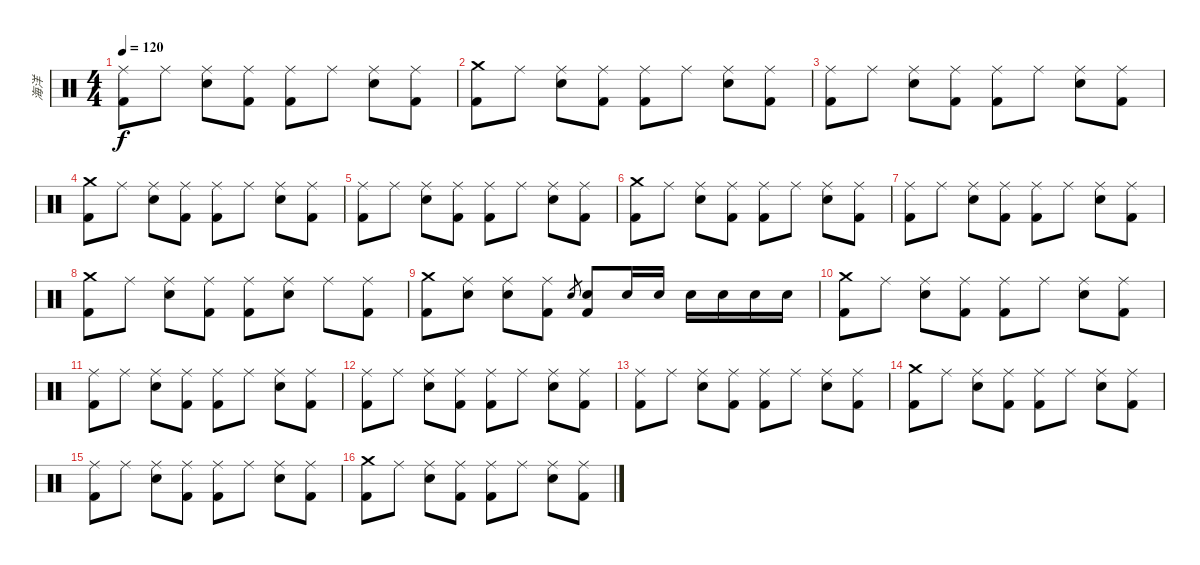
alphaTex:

\track ("海洋" "海洋") {instrument percussion}
\staff {score}
\articulation defaults
\ts (4 4)
\tempo 120
\clef neutral
\ks c
("Ride (middle)" "Kick (hit) 2").8{dy f} "Ride (middle)".8 ("Ride (middle)" "Electric Snare (hit)").8 ("Ride (middle)" "Kick (hit) 2").8 ("Ride (middle)" "Kick (hit) 2").8 "Ride (middle)".8 ("Ride (middle)" "Electric Snare (hit)").8 ("Ride (middle)" "Kick (hit) 2").8 |
("Crash medium (hit)" "Kick (hit) 2").8 "Ride (middle)".8 ("Ride (middle)" "Electric Snare (hit)").8 ("Ride (middle)" "Kick (hit) 2").8 ("Ride (middle)" "Kick (hit) 2").8 "Ride (middle)".8 ("Ride (middle)" "Electric Snare (hit)").8 ("Ride (middle)" "Kick (hit) 2").8 |
("Ride (middle)" "Kick (hit) 2").8 "Ride (middle)".8 ("Ride (middle)" "Electric Snare (hit)").8 ("Ride (middle)" "Kick (hit) 2").8 ("Ride (middle)" "Kick (hit) 2").8 "Ride (middle)".8 ("Ride (middle)" "Electric Snare (hit)").8 ("Ride (middle)" "Kick (hit) 2").8 |
("Crash medium (hit)" "Kick (hit) 2").8 "Ride (middle)".8 ("Ride (middle)" "Electric Snare (hit)").8 ("Ride (middle)" "Kick (hit) 2").8 ("Ride (middle)" "Kick (hit) 2").8 "Ride (middle)".8 ("Ride (middle)" "Electric Snare (hit)").8 ("Ride (middle)" "Kick (hit) 2").8 |
("Ride (middle)" "Kick (hit) 2").8 "Ride (middle)".8 ("Ride (middle)" "Electric Snare (hit)").8 ("Ride (middle)" "Kick (hit) 2").8 ("Ride (middle)" "Kick (hit) 2").8 "Ride (middle)".8 ("Ride (middle)" "Electric Snare (hit)").8 ("Ride (middle)" "Kick (hit) 2").8 |
("Crash medium (hit)" "Kick (hit) 2").8 "Ride (middle)".8 ("Ride (middle)" "Electric Snare (hit)").8 ("Ride (middle)" "Kick (hit) 2").8 ("Ride (middle)" "Kick (hit) 2").8 "Ride (middle)".8 ("Ride (middle)" "Electric Snare (hit)").8 ("Ride (middle)" "Kick (hit) 2").8 |
("Ride (middle)" "Kick (hit) 2").8 "Ride (middle)".8 ("Ride (middle)" "Electric Snare (hit)").8 ("Ride (middle)" "Kick (hit) 2").8 ("Ride (middle)" "Kick (hit) 2").8 "Ride (middle)".8 ("Ride (middle)" "Electric Snare (hit)").8 ("Ride (middle)" "Kick (hit) 2").8 |
("Crash medium (hit)" "Kick (hit) 2").8 "Ride (middle)".8 ("Ride (middle)" "Electric Snare (hit)").8 ("Ride (middle)" "Kick (hit) 2").8 ("Ride (middle)" "Kick (hit) 2").8 ("Ride (middle)" "Electric Snare (hit)").8 "Ride (middle)".8 ("Ride (middle)" "Kick (hit) 2").8 |
("Crash medium (hit)" "Kick (hit) 2").8 ("Ride (middle)" "Electric Snare (hit)").8 ("Ride (middle)" "Electric Snare (hit)").8 ("Ride (middle)" "Kick (hit) 2").8 "Electric Snare (hit)".8{gr} ("Electric Snare (hit)" "Kick (hit) 2").8 "Electric Snare (hit)".16 "Electric Snare (hit)".16 "Electric Snare (hit)".16 "Electric Snare (hit)".16 "Electric Snare (hit)".16 "Electric Snare (hit)".16 |
("Crash medium (hit)" "Kick (hit) 2").8 "Ride (middle)".8 ("Ride (middle)" "Electric Snare (hit)").8 ("Ride (middle)" "Kick (hit) 2").8 ("Ride (middle)" "Kick (hit) 2").8 "Ride (middle)".8 ("Ride (middle)" "Electric Snare (hit)").8 ("Ride (middle)" "Kick (hit) 2").8 |
("Ride (middle)" "Kick (hit) 2").8 "Ride (middle)".8 ("Ride (middle)" "Electric Snare (hit)").8 ("Ride (middle)" "Kick (hit) 2").8 ("Ride (middle)" "Kick (hit) 2").8 "Ride (middle)".8 ("Ride (middle)" "Electric Snare (hit)").8 ("Ride (middle)" "Kick (hit) 2").8 |
("Ride (middle)" "Kick (hit) 2").8 "Ride (middle)".8 ("Ride (middle)" "Electric Snare (hit)").8 ("Ride (middle)" "Kick (hit) 2").8 ("Ride (middle)" "Kick (hit) 2").8 "Ride (middle)".8 ("Ride (middle)" "Electric Snare (hit)").8 ("Ride (middle)" "Kick (hit) 2").8 |
("Ride (middle)" "Kick (hit) 2").8 "Ride (middle)".8 ("Ride (middle)" "Electric Snare (hit)").8 ("Ride (middle)" "Kick (hit) 2").8 ("Ride (middle)" "Kick (hit) 2").8 "Ride (middle)".8 ("Ride (middle)" "Electric Snare (hit)").8 ("Ride (middle)" "Kick (hit) 2").8 |
("Crash medium (hit)" "Kick (hit) 2").8 "Ride (middle)".8 ("Ride (middle)" "Electric Snare (hit)").8 ("Ride (middle)" "Kick (hit) 2").8 ("Ride (middle)" "Kick (hit) 2").8 "Ride (middle)".8 ("Ride (middle)" "Electric Snare (hit)").8 ("Ride (middle)" "Kick (hit) 2").8 |
("Ride (middle)" "Kick (hit) 2").8 "Ride (middle)".8 ("Ride (middle)" "Electric Snare (hit)").8 ("Ride (middle)" "Kick (hit) 2").8 ("Ride (middle)" "Kick (hit) 2").8 "Ride (middle)".8 ("Ride (middle)" "Electric Snare (hit)").8 ("Ride (middle)" "Kick (hit) 2").8 |
("Crash medium (hit)" "Kick (hit) 2").8 "Ride (middle)".8 ("Ride (middle)" "Electric Snare (hit)").8 ("Ride (middle)" "Kick (hit) 2").8 ("Ride (middle)" "Kick (hit) 2").8 "Ride (middle)".8 ("Ride (middle)" "Electric Snare (hit)").8 ("Ride (middle)" "Kick (hit) 2").8
